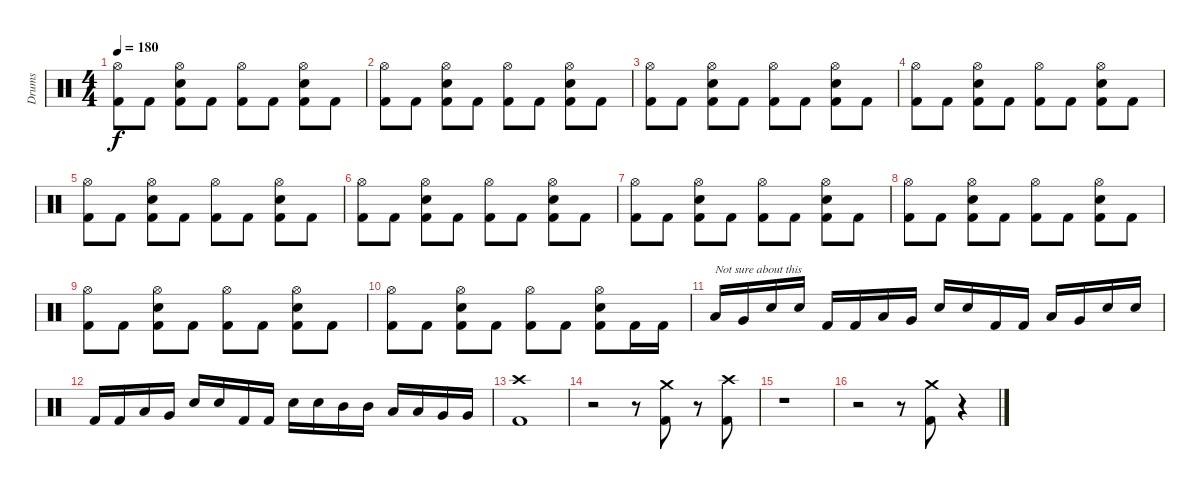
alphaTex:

\track ("Drums" "Drums") {instrument percussion}
\staff {score}
\articulation defaults
\ts (4 4)
\tempo 180
\clef neutral
\ks c
("Hi-Hat (open)" "Kick (hit) 2").8{dy f} "Kick (hit) 2".8 ("Hi-Hat (open)" "Snare (hit) 2" "Kick (hit) 2").8 "Kick (hit) 2".8 ("Hi-Hat (open)" "Kick (hit) 2").8 "Kick (hit) 2".8 ("Hi-Hat (open)" "Snare (hit) 2" "Kick (hit) 2").8 "Kick (hit) 2".8 |
("Hi-Hat (open)" "Kick (hit) 2").8 "Kick (hit) 2".8 ("Hi-Hat (open)" "Snare (hit) 2" "Kick (hit) 2").8 "Kick (hit) 2".8 ("Hi-Hat (open)" "Kick (hit) 2").8 "Kick (hit) 2".8 ("Hi-Hat (open)" "Snare (hit) 2" "Kick (hit) 2").8 "Kick (hit) 2".8 |
("Hi-Hat (open)" "Kick (hit) 2").8 "Kick (hit) 2".8 ("Hi-Hat (open)" "Snare (hit) 2" "Kick (hit) 2").8 "Kick (hit) 2".8 ("Hi-Hat (open)" "Kick (hit) 2").8 "Kick (hit) 2".8 ("Hi-Hat (open)" "Snare (hit) 2" "Kick (hit) 2").8 "Kick (hit) 2".8 |
("Hi-Hat (open)" "Kick (hit) 2").8 "Kick (hit) 2".8 ("Hi-Hat (open)" "Snare (hit) 2" "Kick (hit) 2").8 "Kick (hit) 2".8 ("Hi-Hat (open)" "Kick (hit) 2").8 "Kick (hit) 2".8 ("Hi-Hat (open)" "Snare (hit) 2" "Kick (hit) 2").8 "Kick (hit) 2".8 |
("Hi-Hat (open)" "Kick (hit) 2").8 "Kick (hit) 2".8 ("Hi-Hat (open)" "Snare (hit) 2" "Kick (hit) 2").8 "Kick (hit) 2".8 ("Hi-Hat (open)" "Kick (hit) 2").8 "Kick (hit) 2".8 ("Hi-Hat (open)" "Snare (hit) 2" "Kick (hit) 2").8 "Kick (hit) 2".8 |
("Hi-Hat (open)" "Kick (hit) 2").8 "Kick (hit) 2".8 ("Hi-Hat (open)" "Snare (hit) 2" "Kick (hit) 2").8 "Kick (hit) 2".8 ("Hi-Hat (open)" "Kick (hit) 2").8 "Kick (hit) 2".8 ("Hi-Hat (open)" "Snare (hit) 2" "Kick (hit) 2").8 "Kick (hit) 2".8 |
("Hi-Hat (open)" "Kick (hit) 2").8 "Kick (hit) 2".8 ("Hi-Hat (open)" "Snare (hit) 2" "Kick (hit) 2").8 "Kick (hit) 2".8 ("Hi-Hat (open)" "Kick (hit) 2").8 "Kick (hit) 2".8 ("Hi-Hat (open)" "Snare (hit) 2" "Kick (hit) 2").8 "Kick (hit) 2".8 |
("Hi-Hat (open)" "Kick (hit) 2").8 "Kick (hit) 2".8 ("Hi-Hat (open)" "Snare (hit) 2" "Kick (hit) 2").8 "Kick (hit) 2".8 ("Hi-Hat (open)" "Kick (hit) 2").8 "Kick (hit) 2".8 ("Hi-Hat (open)" "Snare (hit) 2" "Kick (hit) 2").8 "Kick (hit) 2".8 |
("Hi-Hat (open)" "Kick (hit) 2").8 "Kick (hit) 2".8 ("Hi-Hat (open)" "Snare (hit) 2" "Kick (hit) 2").8 "Kick (hit) 2".8 ("Hi-Hat (open)" "Kick (hit) 2").8 "Kick (hit) 2".8 ("Hi-Hat (open)" "Snare (hit) 2" "Kick (hit) 2").8 "Kick (hit) 2".8 |
("Hi-Hat (open)" "Kick (hit) 2").8 "Kick (hit) 2".8 ("Hi-Hat (open)" "Snare (hit) 2" "Kick (hit) 2").8 "Kick (hit) 2".8 ("Hi-Hat (open)" "Kick (hit) 2").8 "Kick (hit) 2".8 ("Hi-Hat (open)" "Snare (hit) 2" "Kick (hit) 2").8 "Kick (hit) 2".16 "Kick (hit) 2".16 |
"Low Tom (hit)".16{txt "Not sure about this"} "Very Low Tom (hit)".16 "Snare (hit) 2".16 "Snare (hit) 2".16 "Kick (hit) 2".16 "Kick (hit) 2".16 "Low Tom (hit)".16 "Very Low Tom (hit)".16 "Snare (hit) 2".16 "Snare (hit) 2".16 "Kick (hit) 2".16 "Kick (hit) 2".16 "Low Tom (hit)".16 "Very Low Tom (hit)".16 "Snare (hit) 2".16 "Snare (hit) 2".16 |
"Kick (hit) 2".16 "Kick (hit) 2".16 "Low Tom (hit)".16 "Very Low Tom (hit)".16 "Snare (hit) 2".16 "Snare (hit) 2".16 "Kick (hit) 2".16 "Kick (hit) 2".16 "Snare (hit) 2".16 "Snare (hit) 2".16 "Mid Tom (hit)".16 "Mid Tom (hit)".16 "Low Tom (hit)".16 "Low Tom (hit)".16 "Very Low Tom (hit)".16 "Very Low Tom (hit)".16 |
("Crash high (hit)" "Kick (hit) 2").1 |
r.2 r.8 ("Crash medium (hit)" "Kick (hit) 2").8 r.8 ("Crash high (hit)" "Kick (hit) 2").8 |
r.1 |
r.2 r.8 ("Crash medium (hit)" "Kick (hit) 2").8 r.4
